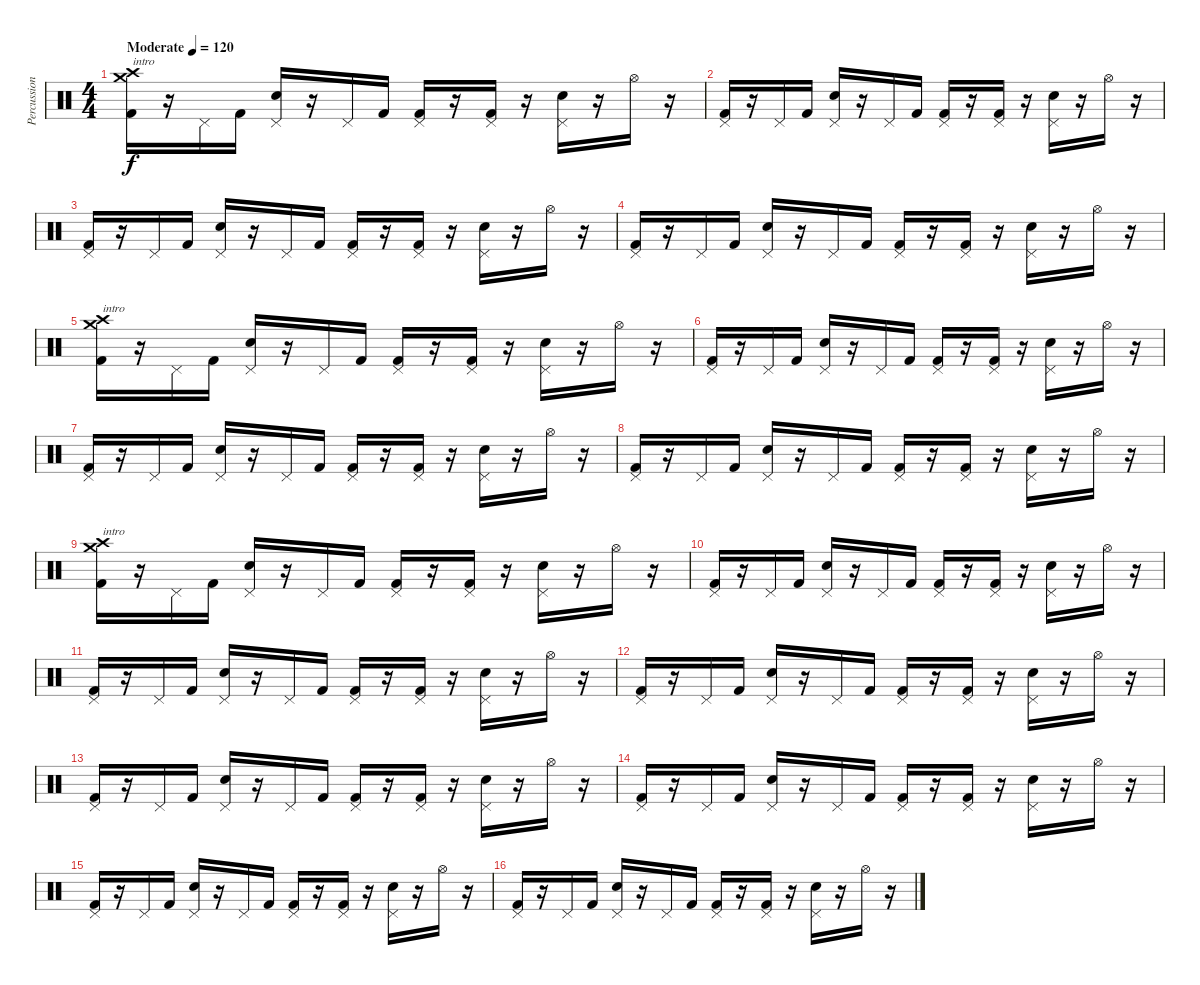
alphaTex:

\track ("Percussion" "Percussion") {instrument percussion}
\staff {score}
\articulation defaults
\ts (4 4)
\tempo (120 "Moderate")
\tempo 100
\tempo (120 "Moderate")
\clef neutral
\ks c
("Crash high (hit)" "Crash medium (hit)" "Kick (hit) 2").16{txt "intro" dy f} r.16 "Pedal Hi-Hat (hit)".16 "Kick (hit) 2".16 ("Pedal Hi-Hat (hit)" "Electric Snare (hit)").16 r.16 "Pedal Hi-Hat (hit)".16 "Kick (hit) 2".16 ("Pedal Hi-Hat (hit)" "Kick (hit) 2").16 r.16 ("Pedal Hi-Hat (hit)" "Kick (hit) 2").16 r.16 ("Pedal Hi-Hat (hit)" "Electric Snare (hit)").16 r.16 "Hi-Hat (open)".16 r.16 |
("Pedal Hi-Hat (hit)" "Kick (hit) 2").16 r.16 "Pedal Hi-Hat (hit)".16 "Kick (hit) 2".16 ("Pedal Hi-Hat (hit)" "Electric Snare (hit)").16 r.16 "Pedal Hi-Hat (hit)".16 "Kick (hit) 2".16 ("Pedal Hi-Hat (hit)" "Kick (hit) 2").16 r.16 ("Pedal Hi-Hat (hit)" "Kick (hit) 2").16 r.16 ("Pedal Hi-Hat (hit)" "Electric Snare (hit)").16 r.16 "Hi-Hat (open)".16 r.16 |
("Pedal Hi-Hat (hit)" "Kick (hit) 2").16 r.16 "Pedal Hi-Hat (hit)".16 "Kick (hit) 2".16 ("Pedal Hi-Hat (hit)" "Electric Snare (hit)").16 r.16 "Pedal Hi-Hat (hit)".16 "Kick (hit) 2".16 ("Pedal Hi-Hat (hit)" "Kick (hit) 2").16 r.16 ("Pedal Hi-Hat (hit)" "Kick (hit) 2").16 r.16 ("Pedal Hi-Hat (hit)" "Electric Snare (hit)").16 r.16 "Hi-Hat (open)".16 r.16 |
("Pedal Hi-Hat (hit)" "Kick (hit) 2").16 r.16 "Pedal Hi-Hat (hit)".16 "Kick (hit) 2".16 ("Pedal Hi-Hat (hit)" "Electric Snare (hit)").16 r.16 "Pedal Hi-Hat (hit)".16 "Kick (hit) 2".16 ("Pedal Hi-Hat (hit)" "Kick (hit) 2").16 r.16 ("Pedal Hi-Hat (hit)" "Kick (hit) 2").16 r.16 ("Pedal Hi-Hat (hit)" "Electric Snare (hit)").16 r.16 "Hi-Hat (open)".16 r.16 |
("Crash high (hit)" "Crash medium (hit)" "Kick (hit) 2").16{txt "intro"} r.16 "Pedal Hi-Hat (hit)".16 "Kick (hit) 2".16 ("Pedal Hi-Hat (hit)" "Electric Snare (hit)").16 r.16 "Pedal Hi-Hat (hit)".16 "Kick (hit) 2".16 ("Pedal Hi-Hat (hit)" "Kick (hit) 2").16 r.16 ("Pedal Hi-Hat (hit)" "Kick (hit) 2").16 r.16 ("Pedal Hi-Hat (hit)" "Electric Snare (hit)").16 r.16 "Hi-Hat (open)".16 r.16 |
("Pedal Hi-Hat (hit)" "Kick (hit) 2").16 r.16 "Pedal Hi-Hat (hit)".16 "Kick (hit) 2".16 ("Pedal Hi-Hat (hit)" "Electric Snare (hit)").16 r.16 "Pedal Hi-Hat (hit)".16 "Kick (hit) 2".16 ("Pedal Hi-Hat (hit)" "Kick (hit) 2").16 r.16 ("Pedal Hi-Hat (hit)" "Kick (hit) 2").16 r.16 ("Pedal Hi-Hat (hit)" "Electric Snare (hit)").16 r.16 "Hi-Hat (open)".16 r.16 |
("Pedal Hi-Hat (hit)" "Kick (hit) 2").16 r.16 "Pedal Hi-Hat (hit)".16 "Kick (hit) 2".16 ("Pedal Hi-Hat (hit)" "Electric Snare (hit)").16 r.16 "Pedal Hi-Hat (hit)".16 "Kick (hit) 2".16 ("Pedal Hi-Hat (hit)" "Kick (hit) 2").16 r.16 ("Pedal Hi-Hat (hit)" "Kick (hit) 2").16 r.16 ("Pedal Hi-Hat (hit)" "Electric Snare (hit)").16 r.16 "Hi-Hat (open)".16 r.16 |
("Pedal Hi-Hat (hit)" "Kick (hit) 2").16 r.16 "Pedal Hi-Hat (hit)".16 "Kick (hit) 2".16 ("Pedal Hi-Hat (hit)" "Electric Snare (hit)").16 r.16 "Pedal Hi-Hat (hit)".16 "Kick (hit) 2".16 ("Pedal Hi-Hat (hit)" "Kick (hit) 2").16 r.16 ("Pedal Hi-Hat (hit)" "Kick (hit) 2").16 r.16 ("Pedal Hi-Hat (hit)" "Electric Snare (hit)").16 r.16 "Hi-Hat (open)".16 r.16 |
("Crash high (hit)" "Crash medium (hit)" "Kick (hit) 2").16{txt "intro"} r.16 "Pedal Hi-Hat (hit)".16 "Kick (hit) 2".16 ("Pedal Hi-Hat (hit)" "Electric Snare (hit)").16 r.16 "Pedal Hi-Hat (hit)".16 "Kick (hit) 2".16 ("Pedal Hi-Hat (hit)" "Kick (hit) 2").16 r.16 ("Pedal Hi-Hat (hit)" "Kick (hit) 2").16 r.16 ("Pedal Hi-Hat (hit)" "Electric Snare (hit)").16 r.16 "Hi-Hat (open)".16 r.16 |
("Pedal Hi-Hat (hit)" "Kick (hit) 2").16 r.16 "Pedal Hi-Hat (hit)".16 "Kick (hit) 2".16 ("Pedal Hi-Hat (hit)" "Electric Snare (hit)").16 r.16 "Pedal Hi-Hat (hit)".16 "Kick (hit) 2".16 ("Pedal Hi-Hat (hit)" "Kick (hit) 2").16 r.16 ("Pedal Hi-Hat (hit)" "Kick (hit) 2").16 r.16 ("Pedal Hi-Hat (hit)" "Electric Snare (hit)").16 r.16 "Hi-Hat (open)".16 r.16 |
("Pedal Hi-Hat (hit)" "Kick (hit) 2").16 r.16 "Pedal Hi-Hat (hit)".16 "Kick (hit) 2".16 ("Pedal Hi-Hat (hit)" "Electric Snare (hit)").16 r.16 "Pedal Hi-Hat (hit)".16 "Kick (hit) 2".16 ("Pedal Hi-Hat (hit)" "Kick (hit) 2").16 r.16 ("Pedal Hi-Hat (hit)" "Kick (hit) 2").16 r.16 ("Pedal Hi-Hat (hit)" "Electric Snare (hit)").16 r.16 "Hi-Hat (open)".16 r.16 |
("Pedal Hi-Hat (hit)" "Kick (hit) 2").16 r.16 "Pedal Hi-Hat (hit)".16 "Kick (hit) 2".16 ("Pedal Hi-Hat (hit)" "Electric Snare (hit)").16 r.16 "Pedal Hi-Hat (hit)".16 "Kick (hit) 2".16 ("Pedal Hi-Hat (hit)" "Kick (hit) 2").16 r.16 ("Pedal Hi-Hat (hit)" "Kick (hit) 2").16 r.16 ("Pedal Hi-Hat (hit)" "Electric Snare (hit)").16 r.16 "Hi-Hat (open)".16 r.16 |
("Pedal Hi-Hat (hit)" "Kick (hit) 2").16 r.16 "Pedal Hi-Hat (hit)".16 "Kick (hit) 2".16 ("Pedal Hi-Hat (hit)" "Electric Snare (hit)").16 r.16 "Pedal Hi-Hat (hit)".16 "Kick (hit) 2".16 ("Pedal Hi-Hat (hit)" "Kick (hit) 2").16 r.16 ("Pedal Hi-Hat (hit)" "Kick (hit) 2").16 r.16 ("Pedal Hi-Hat (hit)" "Electric Snare (hit)").16 r.16 "Hi-Hat (open)".16 r.16 |
("Pedal Hi-Hat (hit)" "Kick (hit) 2").16 r.16 "Pedal Hi-Hat (hit)".16 "Kick (hit) 2".16 ("Pedal Hi-Hat (hit)" "Electric Snare (hit)").16 r.16 "Pedal Hi-Hat (hit)".16 "Kick (hit) 2".16 ("Pedal Hi-Hat (hit)" "Kick (hit) 2").16 r.16 ("Pedal Hi-Hat (hit)" "Kick (hit) 2").16 r.16 ("Pedal Hi-Hat (hit)" "Electric Snare (hit)").16 r.16 "Hi-Hat (open)".16 r.16 |
("Pedal Hi-Hat (hit)" "Kick (hit) 2").16 r.16 "Pedal Hi-Hat (hit)".16 "Kick (hit) 2".16 ("Pedal Hi-Hat (hit)" "Electric Snare (hit)").16 r.16 "Pedal Hi-Hat (hit)".16 "Kick (hit) 2".16 ("Pedal Hi-Hat (hit)" "Kick (hit) 2").16 r.16 ("Pedal Hi-Hat (hit)" "Kick (hit) 2").16 r.16 ("Pedal Hi-Hat (hit)" "Electric Snare (hit)").16 r.16 "Hi-Hat (open)".16 r.16 |
("Pedal Hi-Hat (hit)" "Kick (hit) 2").16 r.16 "Pedal Hi-Hat (hit)".16 "Kick (hit) 2".16 ("Pedal Hi-Hat (hit)" "Electric Snare (hit)").16 r.16 "Pedal Hi-Hat (hit)".16 "Kick (hit) 2".16 ("Pedal Hi-Hat (hit)" "Kick (hit) 2").16 r.16 ("Pedal Hi-Hat (hit)" "Kick (hit) 2").16 r.16 ("Pedal Hi-Hat (hit)" "Electric Snare (hit)").16 r.16 "Hi-Hat (open)".16 r.16
